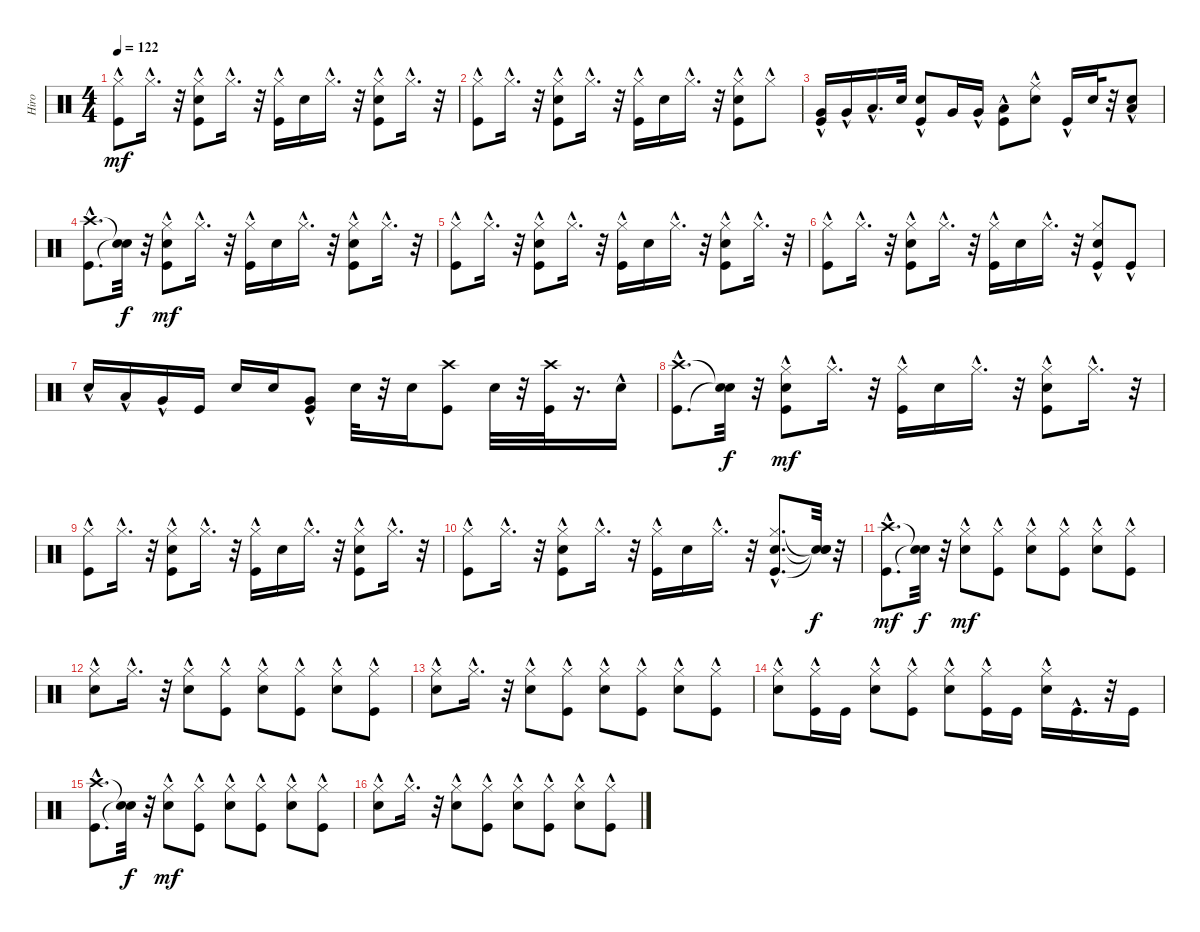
\track ("Hiro" "Hiro") {instrument percussion}
\staff {score}
\articulation defaults
\ts (4 4)
\tempo 122
\clef neutral
\ks c
("Kick (hit)"{hac} "Hi-Hat (closed)"{hac}).8{dy mf} "Hi-Hat (closed)"{hac}.16{d} r.32 ("Kick (hit)"{hac} "Electric Snare (hit)"{hac} "Hi-Hat (closed)"{hac}).8 "Hi-Hat (closed)"{hac}.16{d} r.32 ("Kick (hit)"{hac} "Hi-Hat (closed)"{hac}).16 "Electric Snare (hit)".16 "Hi-Hat (closed)"{hac}.16{d} r.32 ("Electric Snare (hit)"{hac} "Hi-Hat (closed)"{hac} "Kick (hit)"{hac}).8 "Hi-Hat (closed)"{hac}.16{d} r.32 |
("Kick (hit)"{hac} "Hi-Hat (closed)"{hac}).8 "Hi-Hat (closed)"{hac}.16{d} r.32 ("Kick (hit)"{hac} "Electric Snare (hit)"{hac} "Hi-Hat (closed)"{hac}).8 "Hi-Hat (closed)"{hac}.16{d} r.32 ("Kick (hit)"{hac} "Hi-Hat (closed)"{hac}).16 "Electric Snare (hit)".16 "Hi-Hat (closed)"{hac}.16{d} r.32 ("Electric Snare (hit)"{hac} "Hi-Hat (closed)"{hac} "Kick (hit)"{hac}).8 "Hi-Hat (closed)"{hac}.8 |
("Very Low Tom (hit)" "Kick (hit)"{hac}).16 "Very Low Tom (hit)"{hac}.16 "Low Tom (hit)"{hac}.16{d} "Electric Snare (hit)".32 ("Electric Snare (hit)"{hac} "Kick (hit)"{hac}).8 "Very Low Tom (hit)".16 "Very Low Tom (hit)"{hac}.16 ("Low Tom (hit)"{hac} "Kick (hit)"{hac}).8 ("Ride (middle)"{hac} "Electric Snare (hit)").8 "Kick (hit)"{hac}.16 "Electric Snare (hit)".32 r.32 ("Low Tom (hit)"{hac} "Electric Snare (hit)"{hac}).8 |
("Kick (hit)"{hac} "Crash high (hit)"{hac}).8{d} ("Snare (hit)"{t} "Snare (hit)"{t}).32{dy f} r.32 ("Kick (hit)"{hac} "Electric Snare (hit)"{hac} "Hi-Hat (closed)").8{dy mf} "Hi-Hat (closed)"{hac}.16{d} r.32 ("Kick (hit)"{hac} "Hi-Hat (closed)"{hac}).16 "Electric Snare (hit)".16 "Hi-Hat (closed)"{hac}.16{d} r.32 ("Electric Snare (hit)"{hac} "Hi-Hat (closed)"{hac} "Kick (hit)"{hac}).8 "Hi-Hat (closed)"{hac}.16{d} r.32 |
("Kick (hit)"{hac} "Hi-Hat (closed)"{hac}).8 "Hi-Hat (closed)"{hac}.16{d} r.32 ("Kick (hit)"{hac} "Electric Snare (hit)"{hac} "Hi-Hat (closed)"{hac}).8 "Hi-Hat (closed)"{hac}.16{d} r.32 ("Kick (hit)"{hac} "Hi-Hat (closed)"{hac}).16 "Electric Snare (hit)".16 "Hi-Hat (closed)"{hac}.16{d} r.32 ("Electric Snare (hit)"{hac} "Hi-Hat (closed)"{hac} "Kick (hit)"{hac}).8 "Hi-Hat (closed)"{hac}.16{d} r.32 |
("Kick (hit)"{hac} "Hi-Hat (closed)"{hac}).8 "Hi-Hat (closed)"{hac}.16{d} r.32 ("Kick (hit)"{hac} "Electric Snare (hit)"{hac} "Hi-Hat (closed)"{hac}).8 "Hi-Hat (closed)"{hac}.16{d} r.32 ("Kick (hit)"{hac} "Hi-Hat (closed)"{hac}).16 "Electric Snare (hit)".16 "Hi-Hat (closed)"{hac}.16{d} r.32 ("Electric Snare (hit)"{hac} "Hi-Hat (closed)"{hac} "Kick (hit)").8 "Kick (hit)"{hac}.8 |
"Electric Snare (hit)"{hac}.16 "Low Tom (hit)"{hac}.16 "Very Low Tom (hit)"{hac}.16 "Kick (hit)".16 "Electric Snare (hit)".16 "Electric Snare (hit)".16 ("Very Low Tom (hit)"{hac} "Kick (hit)"{hac}).8 "Electric Snare (hit)".32 r.32 "Electric Snare (hit)".16 ("Crash high (hit)" "Kick (hit)").8 "Electric Snare (hit)".32 r.32 ("Crash high (hit)" "Kick (hit)").32 r.16{d} "Electric Snare (hit)"{hac}.16 |
("Kick (hit)"{hac} "Crash high (hit)"{hac}).8{d} ("Snare (hit)"{t} "Snare (hit)"{t}).32{dy f} r.32 ("Kick (hit)"{hac} "Electric Snare (hit)"{hac} "Hi-Hat (closed)").8{dy mf} "Hi-Hat (closed)"{hac}.16{d} r.32 ("Kick (hit)"{hac} "Hi-Hat (closed)"{hac}).16 "Electric Snare (hit)".16 "Hi-Hat (closed)"{hac}.16{d} r.32 ("Electric Snare (hit)"{hac} "Hi-Hat (closed)"{hac} "Kick (hit)"{hac}).8 "Hi-Hat (closed)"{hac}.16{d} r.32 |
("Kick (hit)"{hac} "Hi-Hat (closed)"{hac}).8 "Hi-Hat (closed)"{hac}.16{d} r.32 ("Kick (hit)"{hac} "Electric Snare (hit)"{hac} "Hi-Hat (closed)"{hac}).8 "Hi-Hat (closed)"{hac}.16{d} r.32 ("Kick (hit)"{hac} "Hi-Hat (closed)"{hac}).16 "Electric Snare (hit)".16 "Hi-Hat (closed)"{hac}.16{d} r.32 ("Electric Snare (hit)"{hac} "Hi-Hat (closed)"{hac} "Kick (hit)"{hac}).8 "Hi-Hat (closed)"{hac}.16{d} r.32 |
("Kick (hit)"{hac} "Hi-Hat (closed)"{hac}).8 "Hi-Hat (closed)"{hac}.16{d} r.32 ("Kick (hit)"{hac} "Electric Snare (hit)"{hac} "Hi-Hat (closed)"{hac}).8 "Hi-Hat (closed)"{hac}.16{d} r.32 ("Kick (hit)"{hac} "Hi-Hat (closed)"{hac}).16 "Electric Snare (hit)".16 "Hi-Hat (closed)"{hac}.16{d} r.32 ("Electric Snare (hit)"{hac} "Hi-Hat (closed)"{hac} "Kick (hit)"{hac}).8{d} ("Snare (hit)"{t} "Snare (hit)"{t} "Snare (hit)"{t}).32{dy f} r.32 |
("Crash high (hit)"{hac} "Kick (hit)"{hac}).8{d dy mf} ("Snare (hit)"{t} "Snare (hit)"{t}).32{dy f} r.32 ("Electric Snare (hit)"{hac} "Hi-Hat (closed)").8{dy mf} ("Hi-Hat (closed)"{hac} "Kick (hit)"{hac}).8 ("Electric Snare (hit)"{hac} "Hi-Hat (closed)"{hac}).8 ("Hi-Hat (closed)"{hac} "Kick (hit)"{hac}).8 ("Electric Snare (hit)"{hac} "Hi-Hat (closed)"{hac}).8 ("Hi-Hat (closed)"{hac} "Kick (hit)"{hac}).8 |
("Hi-Hat (closed)"{hac} "Electric Snare (hit)"{hac}).8 "Hi-Hat (closed)"{hac}.16{d} r.32 ("Electric Snare (hit)"{hac} "Hi-Hat (closed)"{hac}).8 ("Hi-Hat (closed)"{hac} "Kick (hit)"{hac}).8 ("Electric Snare (hit)"{hac} "Hi-Hat (closed)"{hac}).8 ("Hi-Hat (closed)"{hac} "Kick (hit)"{hac}).8 ("Electric Snare (hit)"{hac} "Hi-Hat (closed)"{hac}).8 ("Hi-Hat (closed)"{hac} "Kick (hit)"{hac}).8 |
("Electric Snare (hit)"{hac} "Hi-Hat (closed)"{hac}).8 "Hi-Hat (closed)"{hac}.16{d} r.32 ("Hi-Hat (closed)"{hac} "Electric Snare (hit)"{hac}).8 ("Kick (hit)"{hac} "Hi-Hat (closed)"{hac}).8 ("Hi-Hat (closed)"{hac} "Electric Snare (hit)"{hac}).8 ("Kick (hit)"{hac} "Hi-Hat (closed)"{hac}).8 ("Hi-Hat (closed)"{hac} "Electric Snare (hit)"{hac}).8 ("Kick (hit)"{hac} "Hi-Hat (closed)"{hac}).8 |
("Electric Snare (hit)"{hac} "Hi-Hat (closed)"{hac}).8 ("Kick (hit)" "Hi-Hat (closed)"{hac}).16 "Kick (hit)".16 ("Electric Snare (hit)"{hac} "Hi-Hat (closed)"{hac}).8 ("Kick (hit)"{hac} "Hi-Hat (closed)"{hac}).8 ("Electric Snare (hit)"{hac} "Hi-Hat (closed)"{hac}).8 ("Kick (hit)" "Hi-Hat (closed)"{hac}).16 "Kick (hit)".16 ("Electric Snare (hit)"{hac} "Hi-Hat (closed)"{hac}).16 "Kick (hit)"{hac}.16{d} r.32 "Kick (hit)".16 |
("Kick (hit)"{hac} "Crash high (hit)"{hac}).8{d} ("Snare (hit)"{t} "Snare (hit)"{t}).32{dy f} r.32 ("Hi-Hat (closed)" "Electric Snare (hit)"{hac}).8{dy mf} ("Kick (hit)"{hac} "Hi-Hat (closed)"{hac}).8 ("Hi-Hat (closed)"{hac} "Electric Snare (hit)"{hac}).8 ("Kick (hit)"{hac} "Hi-Hat (closed)"{hac}).8 ("Hi-Hat (closed)"{hac} "Electric Snare (hit)"{hac}).8 ("Kick (hit)"{hac} "Hi-Hat (closed)"{hac}).8 |
("Electric Snare (hit)"{hac} "Hi-Hat (closed)"{hac}).8 "Hi-Hat (closed)"{hac}.16{d} r.32 ("Hi-Hat (closed)"{hac} "Electric Snare (hit)"{hac}).8 ("Kick (hit)"{hac} "Hi-Hat (closed)"{hac}).8 ("Hi-Hat (closed)"{hac} "Electric Snare (hit)"{hac}).8 ("Kick (hit)"{hac} "Hi-Hat (closed)"{hac}).8 ("Hi-Hat (closed)"{hac} "Electric Snare (hit)"{hac}).8 ("Kick (hit)"{hac} "Hi-Hat (closed)"{hac}).8
